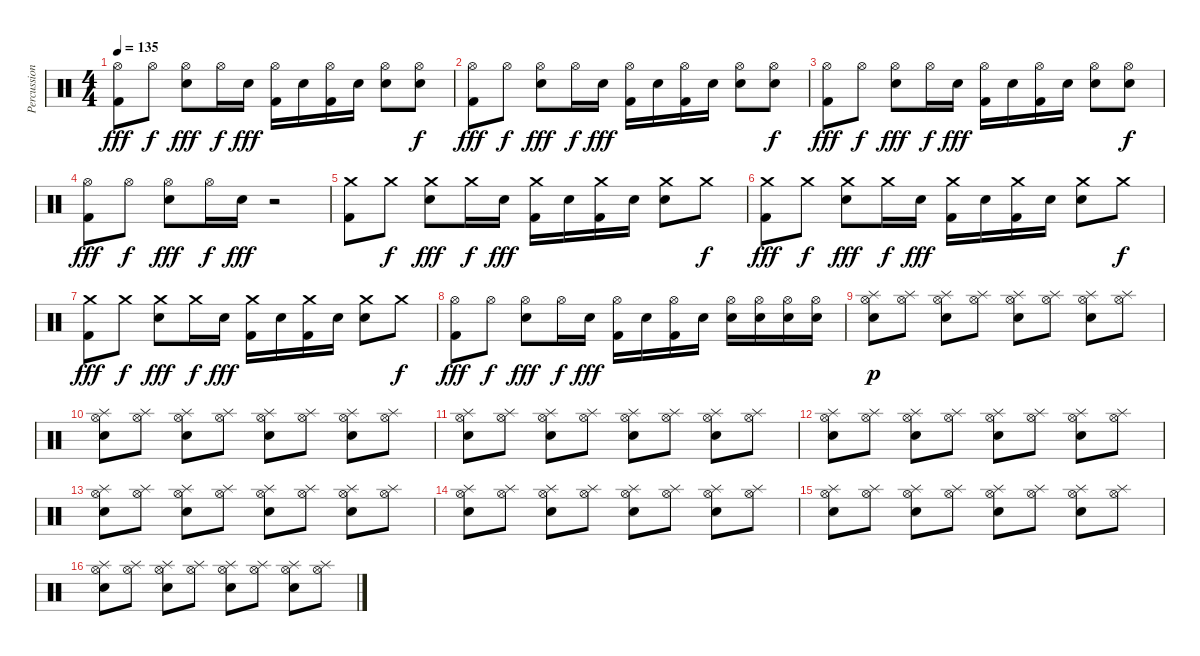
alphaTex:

\track ("Percussions" "Percussion") {instrument percussion}
\staff {score}
\articulation defaults
\ts (4 4)
\tempo 135
\clef neutral
\ks c
("Hi-Hat (open)" "Kick (hit) 2").8{dy fff} "Hi-Hat (open)".8{dy f} ("Hi-Hat (open)" "Electric Snare (hit)").8{dy fff} "Hi-Hat (open)".16{dy f} "Electric Snare (hit)".16{dy fff} ("Hi-Hat (open)" "Kick (hit) 2").16 "Electric Snare (hit)".16 ("Hi-Hat (open)" "Kick (hit) 2").16 "Electric Snare (hit)".16 ("Hi-Hat (open)" "Electric Snare (hit)").8 ("Hi-Hat (open)" "Electric Snare (hit)").8{dy f} |
("Hi-Hat (open)" "Kick (hit) 2").8{dy fff} "Hi-Hat (open)".8{dy f} ("Hi-Hat (open)" "Electric Snare (hit)").8{dy fff} "Hi-Hat (open)".16{dy f} "Electric Snare (hit)".16{dy fff} ("Hi-Hat (open)" "Kick (hit) 2").16 "Electric Snare (hit)".16 ("Hi-Hat (open)" "Kick (hit) 2").16 "Electric Snare (hit)".16 ("Hi-Hat (open)" "Electric Snare (hit)").8 ("Hi-Hat (open)" "Electric Snare (hit)").8{dy f} |
("Hi-Hat (open)" "Kick (hit) 2").8{dy fff} "Hi-Hat (open)".8{dy f} ("Hi-Hat (open)" "Electric Snare (hit)").8{dy fff} "Hi-Hat (open)".16{dy f} "Electric Snare (hit)".16{dy fff} ("Hi-Hat (open)" "Kick (hit) 2").16 "Electric Snare (hit)".16 ("Hi-Hat (open)" "Kick (hit) 2").16 "Electric Snare (hit)".16 ("Hi-Hat (open)" "Electric Snare (hit)").8 ("Hi-Hat (open)" "Electric Snare (hit)").8{dy f} |
("Hi-Hat (open)" "Kick (hit) 2").8{dy fff} "Hi-Hat (open)".8{dy f} ("Hi-Hat (open)" "Electric Snare (hit)").8{dy fff} "Hi-Hat (open)".16{dy f} "Electric Snare (hit)".16{dy fff} r.2 |
("Crash medium (hit)" "Kick (hit) 2").8 "Crash medium (hit)".8{dy f} ("Crash medium (hit)" "Electric Snare (hit)").8{dy fff} "Crash medium (hit)".16{dy f} "Electric Snare (hit)".16{dy fff} ("Crash medium (hit)" "Kick (hit) 2").16 "Electric Snare (hit)".16 ("Crash medium (hit)" "Kick (hit) 2").16 "Electric Snare (hit)".16 ("Crash medium (hit)" "Electric Snare (hit)").8 "Crash medium (hit)".8{dy f} |
("Crash medium (hit)" "Kick (hit) 2").8{dy fff} "Crash medium (hit)".8{dy f} ("Crash medium (hit)" "Electric Snare (hit)").8{dy fff} "Crash medium (hit)".16{dy f} "Electric Snare (hit)".16{dy fff} ("Crash medium (hit)" "Kick (hit) 2").16 "Electric Snare (hit)".16 ("Crash medium (hit)" "Kick (hit) 2").16 "Electric Snare (hit)".16 ("Crash medium (hit)" "Electric Snare (hit)").8 "Crash medium (hit)".8{dy f} |
("Crash medium (hit)" "Kick (hit) 2").8{dy fff} "Crash medium (hit)".8{dy f} ("Crash medium (hit)" "Electric Snare (hit)").8{dy fff} "Crash medium (hit)".16{dy f} "Electric Snare (hit)".16{dy fff} ("Crash medium (hit)" "Kick (hit) 2").16 "Electric Snare (hit)".16 ("Crash medium (hit)" "Kick (hit) 2").16 "Electric Snare (hit)".16 ("Crash medium (hit)" "Electric Snare (hit)").8 "Crash medium (hit)".8{dy f} |
("Hi-Hat (open)" "Kick (hit) 2").8{dy fff} "Hi-Hat (open)".8{dy f} ("Hi-Hat (open)" "Electric Snare (hit)").8{dy fff} "Hi-Hat (open)".16{dy f} "Electric Snare (hit)".16{dy fff} ("Hi-Hat (open)" "Kick (hit) 2").16 "Electric Snare (hit)".16 ("Hi-Hat (open)" "Kick (hit) 2").16 "Electric Snare (hit)".16 ("Hi-Hat (open)" "Electric Snare (hit)").16 ("Hi-Hat (open)" "Electric Snare (hit)").16 ("Hi-Hat (open)" "Electric Snare (hit)").16 ("Hi-Hat (open)" "Electric Snare (hit)").16 |
("Hi-Hat (open)" "Splash (hit)" "Electric Snare (hit)").8{dy p} ("Hi-Hat (open)" "Splash (hit)").8 ("Hi-Hat (open)" "Splash (hit)" "Electric Snare (hit)").8 ("Hi-Hat (open)" "Splash (hit)").8 ("Hi-Hat (open)" "Splash (hit)" "Electric Snare (hit)").8 ("Hi-Hat (open)" "Splash (hit)").8 ("Hi-Hat (open)" "Splash (hit)" "Electric Snare (hit)").8 ("Hi-Hat (open)" "Splash (hit)").8 |
("Hi-Hat (open)" "Splash (hit)" "Electric Snare (hit)").8 ("Hi-Hat (open)" "Splash (hit)").8 ("Hi-Hat (open)" "Splash (hit)" "Electric Snare (hit)").8 ("Hi-Hat (open)" "Splash (hit)").8 ("Hi-Hat (open)" "Splash (hit)" "Electric Snare (hit)").8 ("Hi-Hat (open)" "Splash (hit)").8 ("Hi-Hat (open)" "Splash (hit)" "Electric Snare (hit)").8 ("Hi-Hat (open)" "Splash (hit)").8 |
("Hi-Hat (open)" "Splash (hit)" "Electric Snare (hit)").8 ("Hi-Hat (open)" "Splash (hit)").8 ("Hi-Hat (open)" "Splash (hit)" "Electric Snare (hit)").8 ("Hi-Hat (open)" "Splash (hit)").8 ("Hi-Hat (open)" "Splash (hit)" "Electric Snare (hit)").8 ("Hi-Hat (open)" "Splash (hit)").8 ("Hi-Hat (open)" "Splash (hit)" "Electric Snare (hit)").8 ("Hi-Hat (open)" "Splash (hit)").8 |
("Hi-Hat (open)" "Splash (hit)" "Electric Snare (hit)").8 ("Hi-Hat (open)" "Splash (hit)").8 ("Hi-Hat (open)" "Splash (hit)" "Electric Snare (hit)").8 ("Hi-Hat (open)" "Splash (hit)").8 ("Hi-Hat (open)" "Splash (hit)" "Electric Snare (hit)").8 ("Hi-Hat (open)" "Splash (hit)").8 ("Hi-Hat (open)" "Splash (hit)" "Electric Snare (hit)").8 ("Hi-Hat (open)" "Splash (hit)").8 |
("Hi-Hat (open)" "Splash (hit)" "Electric Snare (hit)").8 ("Hi-Hat (open)" "Splash (hit)").8 ("Hi-Hat (open)" "Splash (hit)" "Electric Snare (hit)").8 ("Hi-Hat (open)" "Splash (hit)").8 ("Hi-Hat (open)" "Splash (hit)" "Electric Snare (hit)").8 ("Hi-Hat (open)" "Splash (hit)").8 ("Hi-Hat (open)" "Splash (hit)" "Electric Snare (hit)").8 ("Hi-Hat (open)" "Splash (hit)").8 |
("Hi-Hat (open)" "Splash (hit)" "Electric Snare (hit)").8 ("Hi-Hat (open)" "Splash (hit)").8 ("Hi-Hat (open)" "Splash (hit)" "Electric Snare (hit)").8 ("Hi-Hat (open)" "Splash (hit)").8 ("Hi-Hat (open)" "Splash (hit)" "Electric Snare (hit)").8 ("Hi-Hat (open)" "Splash (hit)").8 ("Hi-Hat (open)" "Splash (hit)" "Electric Snare (hit)").8 ("Hi-Hat (open)" "Splash (hit)").8 |
("Hi-Hat (open)" "Splash (hit)" "Electric Snare (hit)").8 ("Hi-Hat (open)" "Splash (hit)").8 ("Hi-Hat (open)" "Splash (hit)" "Electric Snare (hit)").8 ("Hi-Hat (open)" "Splash (hit)").8 ("Hi-Hat (open)" "Splash (hit)" "Electric Snare (hit)").8 ("Hi-Hat (open)" "Splash (hit)").8 ("Hi-Hat (open)" "Splash (hit)" "Electric Snare (hit)").8 ("Hi-Hat (open)" "Splash (hit)").8 |
("Hi-Hat (open)" "Splash (hit)" "Electric Snare (hit)").8 ("Hi-Hat (open)" "Splash (hit)").8 ("Hi-Hat (open)" "Splash (hit)" "Electric Snare (hit)").8 ("Hi-Hat (open)" "Splash (hit)").8 ("Hi-Hat (open)" "Splash (hit)" "Electric Snare (hit)").8 ("Hi-Hat (open)" "Splash (hit)").8 ("Hi-Hat (open)" "Splash (hit)" "Electric Snare (hit)").8 ("Hi-Hat (open)" "Splash (hit)").8
